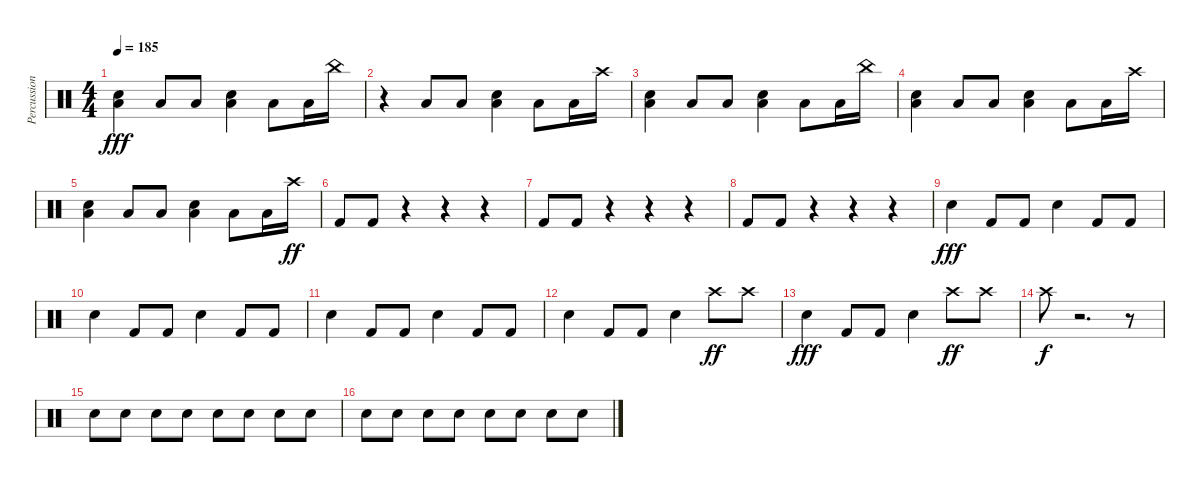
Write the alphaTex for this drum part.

\track ("Percussions" "Percussion") {instrument percussion}
\staff {score}
\articulation defaults
\ts (4 4)
\tempo 185
\clef neutral
\ks c
("Electric Snare (hit)" "Low Tom (hit)").4{dy fff} "Low Tom (hit)".8 "Low Tom (hit)".8 ("Electric Snare (hit)" "Low Tom (hit)").4 "Low Tom (hit)".8 "Low Tom (hit)".16 "China (hit)".16 |
r.4 "Low Tom (hit)".8 "Low Tom (hit)".8 ("Electric Snare (hit)" "Low Tom (hit)").4 "Low Tom (hit)".8 "Low Tom (hit)".16 "Crash high (hit)".16 |
("Electric Snare (hit)" "Low Tom (hit)").4 "Low Tom (hit)".8 "Low Tom (hit)".8 ("Electric Snare (hit)" "Low Tom (hit)").4 "Low Tom (hit)".8 "Low Tom (hit)".16 "China (hit)".16 |
("Electric Snare (hit)" "Low Tom (hit)").4 "Low Tom (hit)".8 "Low Tom (hit)".8 ("Electric Snare (hit)" "Low Tom (hit)").4 "Low Tom (hit)".8 "Low Tom (hit)".16 "Crash high (hit)".16 |
("Electric Snare (hit)" "Low Tom (hit)").4 "Low Tom (hit)".8 "Low Tom (hit)".8 ("Electric Snare (hit)" "Low Tom (hit)").4 "Low Tom (hit)".8 "Low Tom (hit)".16 "Crash high (hit)".16{dy ff} |
"Kick (hit) 2".8 "Kick (hit) 2".8 r.4 r.4 r.4 |
"Kick (hit) 2".8 "Kick (hit) 2".8 r.4 r.4 r.4 |
"Kick (hit) 2".8 "Kick (hit) 2".8 r.4 r.4 r.4 |
"Electric Snare (hit)".4{dy fff} "Kick (hit) 2".8 "Kick (hit) 2".8 "Electric Snare (hit)".4 "Kick (hit) 2".8 "Kick (hit) 2".8 |
"Electric Snare (hit)".4 "Kick (hit) 2".8 "Kick (hit) 2".8 "Electric Snare (hit)".4 "Kick (hit) 2".8 "Kick (hit) 2".8 |
"Electric Snare (hit)".4 "Kick (hit) 2".8 "Kick (hit) 2".8 "Electric Snare (hit)".4 "Kick (hit) 2".8 "Kick (hit) 2".8 |
"Electric Snare (hit)".4 "Kick (hit) 2".8 "Kick (hit) 2".8 "Electric Snare (hit)".4 "Crash high (hit)".8{dy ff} "Crash high (hit)".8 |
"Electric Snare (hit)".4{dy fff} "Kick (hit) 2".8 "Kick (hit) 2".8 "Electric Snare (hit)".4 "Crash high (hit)".8{dy ff} "Crash high (hit)".8 |
"Crash high (hit)".8{dy f} r.2{d} r.8 |
"Hand Clap (hit)".8 "Hand Clap (hit)".8 "Hand Clap (hit)".8 "Hand Clap (hit)".8 "Hand Clap (hit)".8 "Hand Clap (hit)".8 "Hand Clap (hit)".8 "Hand Clap (hit)".8 |
"Hand Clap (hit)".8 "Hand Clap (hit)".8 "Hand Clap (hit)".8 "Hand Clap (hit)".8 "Hand Clap (hit)".8 "Hand Clap (hit)".8 "Hand Clap (hit)".8 "Hand Clap (hit)".8
